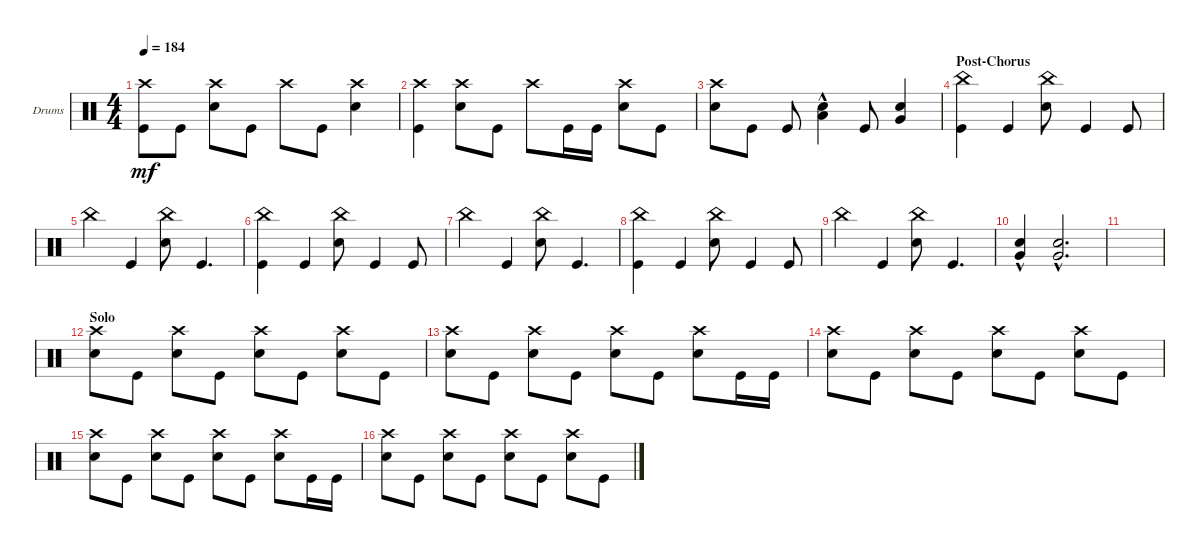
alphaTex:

\defaultSystemsLayout 4
\bracketExtendMode groupsimilarinstruments
\firstSystemTrackNameOrientation horizontal
\otherSystemsTrackNameOrientation horizontal
\track ("Drums (Phoenix)" "Drums") {instrument percussion}
\staff {score}
\articulation defaults
\ts (4 4)
\tempo 184
\clef neutral
\ks c
("Kick (hit)" "Crash high (hit)").8{dy mf} "Kick (hit)".8 ("Snare (hit) 2" "Crash high (hit)").8 "Kick (hit)".8 "Crash high (hit)".8 "Kick (hit)".8 ("Snare (hit) 2" "Crash high (hit)").4 |
("Kick (hit)" "Crash high (hit)").4 ("Snare (hit) 2" "Crash high (hit)").8 "Kick (hit)".8 "Crash high (hit)".8 "Kick (hit)".16 "Kick (hit)".16 ("Snare (hit) 2" "Crash high (hit)").8 "Kick (hit)".8 |
("Snare (hit) 2" "Crash high (hit)").8 "Kick (hit)".8 "Kick (hit)".8 ("Snare (hit) 2"{hac} "Low Tom (hit)").4 "Kick (hit)".8 ("Snare (hit) 2" "Very Low Tom (hit)").4 |
\section ("" "Post-Chorus")
("Kick (hit)" "China (hit)").4 "Kick (hit)".4 ("Snare (hit) 2" "China (hit)").8 "Kick (hit)".4 "Kick (hit)".8 |
"China (hit)".4 "Kick (hit)".4 ("Snare (hit) 2" "China (hit)").8 "Kick (hit)".4{d} |
("Kick (hit)" "China (hit)").4 "Kick (hit)".4 ("Snare (hit) 2" "China (hit)").8 "Kick (hit)".4 "Kick (hit)".8 |
"China (hit)".4 "Kick (hit)".4 ("Snare (hit) 2" "China (hit)").8 "Kick (hit)".4{d} |
("Kick (hit)" "China (hit)").4 "Kick (hit)".4 ("Snare (hit) 2" "China (hit)").8 "Kick (hit)".4 "Kick (hit)".8 |
"China (hit)".4 "Kick (hit)".4 ("Snare (hit) 2" "China (hit)").8 "Kick (hit)".4{d} |
("Snare (hit) 2"{hac} "Very Low Tom (hit)").4 ("Snare (hit) 2"{hac} "Very Low Tom (hit)").2{d} |
|
\section ("" "Solo")
("Snare (hit) 2" "Crash high (hit)").8 "Kick (hit)".8 ("Snare (hit) 2" "Crash high (hit)").8 "Kick (hit)".8 ("Snare (hit) 2" "Crash high (hit)").8 "Kick (hit)".8 ("Snare (hit) 2" "Crash high (hit)").8 "Kick (hit)".8 |
("Snare (hit) 2" "Crash high (hit)").8 "Kick (hit)".8 ("Snare (hit) 2" "Crash high (hit)").8 "Kick (hit)".8 ("Snare (hit) 2" "Crash high (hit)").8 "Kick (hit)".8 ("Snare (hit) 2" "Crash high (hit)").8 "Kick (hit)".16 "Kick (hit)".16 |
("Snare (hit) 2" "Crash high (hit)").8 "Kick (hit)".8 ("Snare (hit) 2" "Crash high (hit)").8 "Kick (hit)".8 ("Snare (hit) 2" "Crash high (hit)").8 "Kick (hit)".8 ("Snare (hit) 2" "Crash high (hit)").8 "Kick (hit)".8 |
("Snare (hit) 2" "Crash high (hit)").8 "Kick (hit)".8 ("Snare (hit) 2" "Crash high (hit)").8 "Kick (hit)".8 ("Snare (hit) 2" "Crash high (hit)").8 "Kick (hit)".8 ("Snare (hit) 2" "Crash high (hit)").8 "Kick (hit)".16 "Kick (hit)".16 |
("Snare (hit) 2" "Crash high (hit)").8 "Kick (hit)".8 ("Snare (hit) 2" "Crash high (hit)").8 "Kick (hit)".8 ("Snare (hit) 2" "Crash high (hit)").8 "Kick (hit)".8 ("Snare (hit) 2" "Crash high (hit)").8 "Kick (hit)".8
